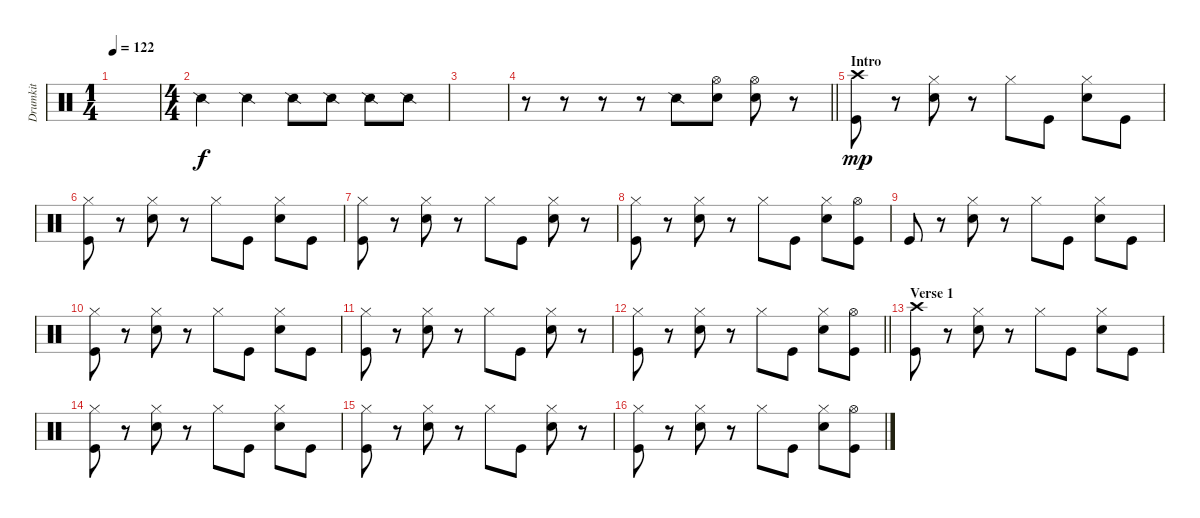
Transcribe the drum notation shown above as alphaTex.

\track ("Drumkit" "Drumkit") {instrument percussion}
\staff {score}
\articulation defaults
\ts (1 4)
\tempo 122
\clef neutral
\ks c
|
\ts (4 4)
"Snare (side stick) 2".4 "Snare (side stick) 2".4 "Snare (side stick) 2".8 "Snare (side stick) 2".8 "Snare (side stick) 2".8 "Snare (side stick) 2".8 |
|
\barLineRight lightlight
r.8 r.8 r.8 r.8 "Snare (side stick) 2".8 ("Snare (hit) 2" "Hi-Hat (open)").8 ("Snare (hit) 2" "Hi-Hat (open)").8 r.8 |
\section ("" "Intro")
("Kick (hit)" "Crash high (hit)").8{dy mp} r.8 ("Snare (hit) 2" "Hi-Hat (closed)").8 r.8 "Hi-Hat (closed)".8 "Kick (hit)".8 ("Snare (hit) 2" "Hi-Hat (closed)").8 "Kick (hit)".8 |
("Kick (hit)" "Hi-Hat (closed)").8 r.8 ("Snare (hit) 2" "Hi-Hat (closed)").8 r.8 "Hi-Hat (closed)".8 "Kick (hit)".8 ("Snare (hit) 2" "Hi-Hat (closed)").8 "Kick (hit)".8 |
("Kick (hit)" "Hi-Hat (closed)").8 r.8 ("Snare (hit) 2" "Hi-Hat (closed)").8 r.8 "Hi-Hat (closed)".8 "Kick (hit)".8 ("Snare (hit) 2" "Hi-Hat (closed)").8 r.8 |
("Kick (hit)" "Hi-Hat (closed)").8 r.8 ("Snare (hit) 2" "Hi-Hat (closed)").8 r.8 "Hi-Hat (closed)".8 "Kick (hit)".8 ("Snare (hit) 2" "Hi-Hat (closed)").8 ("Kick (hit)" "Hi-Hat (open)").8 |
"Kick (hit)".8 r.8 ("Snare (hit) 2" "Hi-Hat (closed)").8 r.8 "Hi-Hat (closed)".8 "Kick (hit)".8 ("Snare (hit) 2" "Hi-Hat (closed)").8 "Kick (hit)".8 |
("Kick (hit)" "Hi-Hat (closed)").8 r.8 ("Snare (hit) 2" "Hi-Hat (closed)").8 r.8 "Hi-Hat (closed)".8 "Kick (hit)".8 ("Snare (hit) 2" "Hi-Hat (closed)").8 "Kick (hit)".8 |
("Kick (hit)" "Hi-Hat (closed)").8 r.8 ("Snare (hit) 2" "Hi-Hat (closed)").8 r.8 "Hi-Hat (closed)".8 "Kick (hit)".8 ("Snare (hit) 2" "Hi-Hat (closed)").8 r.8 |
\barLineRight lightlight
("Kick (hit)" "Hi-Hat (closed)").8 r.8 ("Snare (hit) 2" "Hi-Hat (closed)").8 r.8 "Hi-Hat (closed)".8 "Kick (hit)".8 ("Snare (hit) 2" "Hi-Hat (closed)").8 ("Kick (hit)" "Hi-Hat (open)").8 |
\section ("" "Verse 1")
("Kick (hit)" "Crash high (hit)").8 r.8 ("Snare (hit) 2" "Hi-Hat (closed)").8 r.8 "Hi-Hat (closed)".8 "Kick (hit)".8 ("Snare (hit) 2" "Hi-Hat (closed)").8 "Kick (hit)".8 |
("Kick (hit)" "Hi-Hat (closed)").8 r.8 ("Snare (hit) 2" "Hi-Hat (closed)").8 r.8 "Hi-Hat (closed)".8 "Kick (hit)".8 ("Snare (hit) 2" "Hi-Hat (closed)").8 "Kick (hit)".8 |
("Kick (hit)" "Hi-Hat (closed)").8 r.8 ("Snare (hit) 2" "Hi-Hat (closed)").8 r.8 "Hi-Hat (closed)".8 "Kick (hit)".8 ("Snare (hit) 2" "Hi-Hat (closed)").8 r.8 |
("Kick (hit)" "Hi-Hat (closed)").8 r.8 ("Snare (hit) 2" "Hi-Hat (closed)").8 r.8 "Hi-Hat (closed)".8 "Kick (hit)".8 ("Snare (hit) 2" "Hi-Hat (closed)").8 ("Kick (hit)" "Hi-Hat (open)").8
